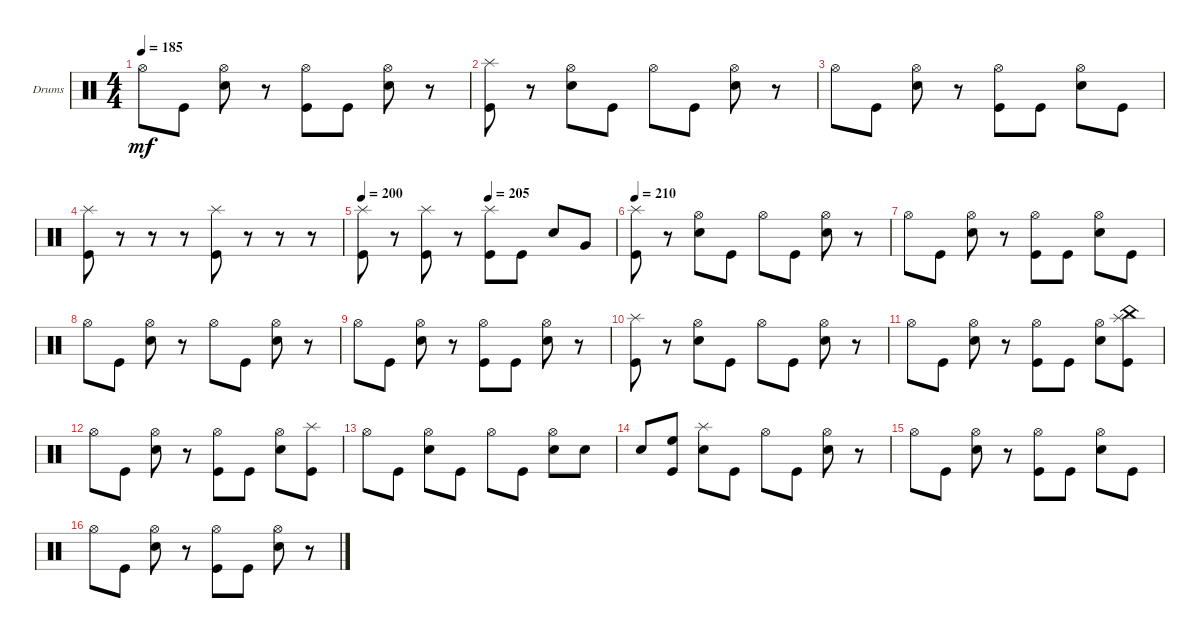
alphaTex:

\bracketExtendMode groupsimilarinstruments
\firstSystemTrackNameOrientation horizontal
\otherSystemsTrackNameOrientation horizontal
\track ("Drumkit" "Drums") {instrument percussion}
\staff {score}
\articulation defaults
\ts (4 4)
\tempo 185
\clef neutral
\ks c "Hi-Hat (open)".8{dy mf} "Kick (hit)".8
("Snare (hit) 2" "Hi-Hat (open)").8 r.8 ("Kick (hit)" "Hi-Hat (open)").8 "Kick (hit)".8 ("Snare (hit) 2" "Hi-Hat (open)").8 r.8 |
("Kick (hit)" "Splash (hit)").8 r.8 ("Snare (hit) 2" "Hi-Hat (open)").8 "Kick (hit)".8 "Hi-Hat (open)".8 "Kick (hit)".8 ("Snare (hit) 2" "Hi-Hat (open)").8 r.8 |
"Hi-Hat (open)".8 "Kick (hit)".8 ("Snare (hit) 2" "Hi-Hat (open)").8 r.8 ("Kick (hit)" "Hi-Hat (open)").8 "Kick (hit)".8 ("Snare (hit) 2" "Hi-Hat (open)").8 "Kick (hit)".8 |
("Kick (hit)" "Splash (hit)").8 r.8 r.8 r.8 ("Kick (hit)" "Splash (hit)").8 r.8 r.8 r.8 |
\tempo 200
\tempo (205 0.5)
("Kick (hit)" "Splash (hit)").8 r.8 ("Kick (hit)" "Splash (hit)").8 r.8 ("Kick (hit)" "Splash (hit)").8 "Kick (hit)".8 "Snare (hit) 2".8 "Very Low Tom (hit)".8 |
\tempo 210
("Kick (hit)" "Splash (hit)").8 r.8 ("Snare (hit) 2" "Hi-Hat (open)").8 "Kick (hit)".8 "Hi-Hat (open)".8 "Kick (hit)".8 ("Snare (hit) 2" "Hi-Hat (open)").8 r.8 |
"Hi-Hat (open)".8 "Kick (hit)".8 ("Snare (hit) 2" "Hi-Hat (open)").8 r.8 ("Kick (hit)" "Hi-Hat (open)").8 "Kick (hit)".8 ("Snare (hit) 2" "Hi-Hat (open)").8 "Kick (hit)".8 |
"Hi-Hat (open)".8 "Kick (hit)".8 ("Snare (hit) 2" "Hi-Hat (open)").8 r.8 "Hi-Hat (open)".8 "Kick (hit)".8 ("Snare (hit) 2" "Hi-Hat (open)").8 r.8 |
"Hi-Hat (open)".8 "Kick (hit)".8 ("Snare (hit) 2" "Hi-Hat (open)").8 r.8 ("Kick (hit)" "Hi-Hat (open)").8 "Kick (hit)".8 ("Snare (hit) 2" "Hi-Hat (open)").8 r.8 |
("Kick (hit)" "Splash (hit)").8 r.8 ("Snare (hit) 2" "Hi-Hat (open)").8 "Kick (hit)".8 "Hi-Hat (open)".8 "Kick (hit)".8 ("Snare (hit) 2" "Hi-Hat (open)").8 r.8 |
"Hi-Hat (open)".8 "Kick (hit)".8 ("Snare (hit) 2" "Hi-Hat (open)").8 r.8 ("Kick (hit)" "Hi-Hat (open)").8 "Kick (hit)".8 ("Snare (hit) 2" "Hi-Hat (open)").8 ("Kick (hit)" "China (hit)" "Splash (hit)").8 |
"Hi-Hat (open)".8 "Kick (hit)".8 ("Snare (hit) 2" "Hi-Hat (open)").8 r.8 ("Hi-Hat (open)" "Kick (hit)").8 "Kick (hit)".8 ("Snare (hit) 2" "Hi-Hat (open)").8 ("Kick (hit)" "Splash (hit)").8 |
"Hi-Hat (open)".8 "Kick (hit)".8 ("Snare (hit) 2" "Hi-Hat (open)").8 "Kick (hit)".8 "Hi-Hat (open)".8 "Kick (hit)".8 ("Snare (hit) 2" "Hi-Hat (open)").8 "Snare (hit) 2".8 |
"Snare (hit) 2".8 ("Kick (hit)" "High Floor Tom (hit)").8 ("Snare (hit) 2" "Splash (hit)").8 "Kick (hit)".8 "Hi-Hat (open)".8 "Kick (hit)".8 ("Snare (hit) 2" "Hi-Hat (open)").8 r.8 |
"Hi-Hat (open)".8 "Kick (hit)".8 ("Snare (hit) 2" "Hi-Hat (open)").8 r.8 ("Kick (hit)" "Hi-Hat (open)").8 "Kick (hit)".8 ("Snare (hit) 2" "Hi-Hat (open)").8 "Kick (hit)".8 |
"Hi-Hat (open)".8 "Kick (hit)".8 ("Snare (hit) 2" "Hi-Hat (open)").8 r.8 ("Kick (hit)" "Hi-Hat (open)").8 "Kick (hit)".8 ("Snare (hit) 2" "Hi-Hat (open)").8 r.8
